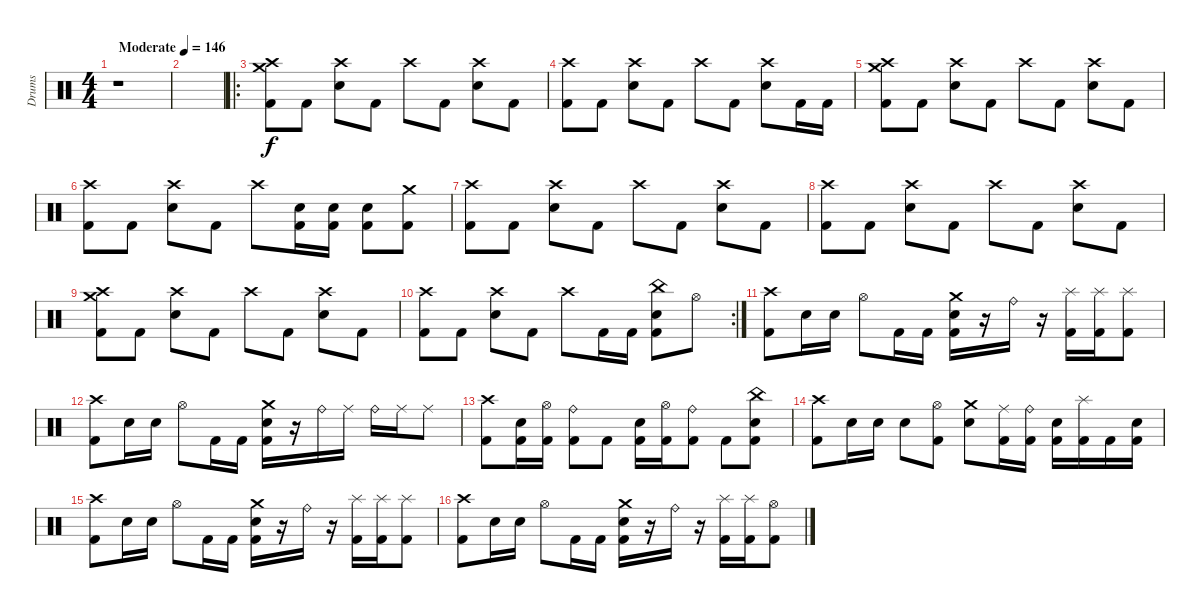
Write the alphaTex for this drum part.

\track ("Drums" "Drums") {solo instrument percussion}
\staff {score}
\articulation defaults
\ts (4 4)
\tempo (146 "Moderate")
\clef neutral
\ks c
r.1{dy f} |
|
\ro
("Crash medium (hit)" "Crash high (hit)" "Kick (hit) 2").8 "Kick (hit) 2".8 ("Crash high (hit)" "Electric Snare (hit)").8 "Kick (hit) 2".8 "Crash high (hit)".8 "Kick (hit) 2".8 ("Crash high (hit)" "Electric Snare (hit)").8 "Kick (hit) 2".8 |
("Crash high (hit)" "Kick (hit) 2").8 "Kick (hit) 2".8 ("Crash high (hit)" "Electric Snare (hit)").8 "Kick (hit) 2".8 "Crash high (hit)".8 "Kick (hit) 2".8 ("Crash high (hit)" "Electric Snare (hit)").8 "Kick (hit) 2".16 "Kick (hit) 2".16 |
("Crash high (hit)" "Crash medium (hit)" "Kick (hit) 2").8 "Kick (hit) 2".8 ("Crash high (hit)" "Electric Snare (hit)").8 "Kick (hit) 2".8 "Crash high (hit)".8 "Kick (hit) 2".8 ("Crash high (hit)" "Electric Snare (hit)").8 "Kick (hit) 2".8 |
("Crash high (hit)" "Kick (hit) 2").8 "Kick (hit) 2".8 ("Crash high (hit)" "Electric Snare (hit)").8 "Kick (hit) 2".8 "Crash high (hit)".8 ("Electric Snare (hit)" "Kick (hit) 2").16 ("Electric Snare (hit)" "Kick (hit) 2").16 ("Electric Snare (hit)" "Kick (hit) 2").8 ("Crash medium (hit)" "Kick (hit) 2").8 |
("Crash high (hit)" "Kick (hit) 2").8 "Kick (hit) 2".8 ("Crash high (hit)" "Electric Snare (hit)").8 "Kick (hit) 2".8 "Crash high (hit)".8 "Kick (hit) 2".8 ("Crash high (hit)" "Electric Snare (hit)").8 "Kick (hit) 2".8 |
("Crash high (hit)" "Kick (hit) 2").8 "Kick (hit) 2".8 ("Crash high (hit)" "Electric Snare (hit)").8 "Kick (hit) 2".8 "Crash high (hit)".8 "Kick (hit) 2".8 ("Crash high (hit)" "Electric Snare (hit)").8 "Kick (hit) 2".8 |
("Crash high (hit)" "Crash medium (hit)" "Kick (hit) 2").8 "Kick (hit) 2".8 ("Crash high (hit)" "Electric Snare (hit)").8 "Kick (hit) 2".8 "Crash high (hit)".8 "Kick (hit) 2".8 ("Crash high (hit)" "Electric Snare (hit)").8 "Kick (hit) 2".8 |
\rc 2
("Crash high (hit)" "Kick (hit) 2").8 "Kick (hit) 2".8 ("Crash high (hit)" "Electric Snare (hit)").8 "Kick (hit) 2".8 "Crash high (hit)".8 "Kick (hit) 2".16 "Kick (hit) 2".16 ("China (hit)" "Electric Snare (hit)" "Kick (hit) 2").8 "Hi-Hat (open)".8 |
("Crash high (hit)" "Kick (hit) 2").8 "Electric Snare (hit)".16 "Electric Snare (hit)".16 "Hi-Hat (open)".8 "Kick (hit) 2".16 "Kick (hit) 2".16 ("Crash medium (hit)" "Electric Snare (hit)" "Kick (hit) 2").16 r.16 "Ride (bell)".16 r.16 ("Splash (hit)" "Kick (hit) 2").16 ("Splash (hit)" "Kick (hit) 2").16 ("Splash (hit)" "Kick (hit) 2").8 |
("Crash high (hit)" "Kick (hit) 2").8 "Electric Snare (hit)".16 "Electric Snare (hit)".16 "Hi-Hat (open)".8 "Kick (hit) 2".16 "Kick (hit) 2".16 ("Crash medium (hit)" "Electric Snare (hit)" "Kick (hit) 2").16 r.16 "Ride (bell)".16 "Ride (middle)".16 "Ride (bell)".16 "Ride (middle)".16 "Ride (middle)".8 |
("Crash high (hit)" "Kick (hit) 2").8 ("Electric Snare (hit)" "Kick (hit) 2").16 ("Hi-Hat (open)" "Kick (hit) 2").16 ("Ride (bell)" "Kick (hit) 2").8 "Kick (hit) 2".8 ("Electric Snare (hit)" "Kick (hit) 2").16 ("Hi-Hat (open)" "Kick (hit) 2").16 ("Ride (bell)" "Kick (hit) 2").8 "Kick (hit) 2".8 ("China (hit)" "Electric Snare (hit)" "Kick (hit) 2").8 |
("Crash high (hit)" "Kick (hit) 2").8 "Electric Snare (hit)".16 "Electric Snare (hit)".16 "Electric Snare (hit)".8 ("Hi-Hat (open)" "Kick (hit) 2").8 ("Crash medium (hit)" "Electric Snare (hit)").8 ("Ride (middle)" "Kick (hit) 2").16 ("Ride (bell)" "Kick (hit) 2").16 ("Electric Snare (hit)" "Kick (hit) 2").16 ("Splash (hit)" "Kick (hit) 2").16 "Kick (hit) 2".16 ("Electric Snare (hit)" "Kick (hit) 2").16 |
("Crash high (hit)" "Kick (hit) 2").8 "Electric Snare (hit)".16 "Electric Snare (hit)".16 "Hi-Hat (open)".8 "Kick (hit) 2".16 "Kick (hit) 2".16 ("Crash medium (hit)" "Electric Snare (hit)" "Kick (hit) 2").16 r.16 "Ride (bell)".16 r.16 ("Splash (hit)" "Kick (hit) 2").16 ("Splash (hit)" "Kick (hit) 2").16 ("Splash (hit)" "Kick (hit) 2").8 |
("Crash high (hit)" "Kick (hit) 2").8 "Electric Snare (hit)".16 "Electric Snare (hit)".16 "Hi-Hat (open)".8 "Kick (hit) 2".16 "Kick (hit) 2".16 ("Crash medium (hit)" "Electric Snare (hit)" "Kick (hit) 2").16 r.16 "Ride (bell)".16 r.16 ("Splash (hit)" "Kick (hit) 2").16 ("Splash (hit)" "Kick (hit) 2").16 ("Hi-Hat (open)" "Kick (hit) 2").8
